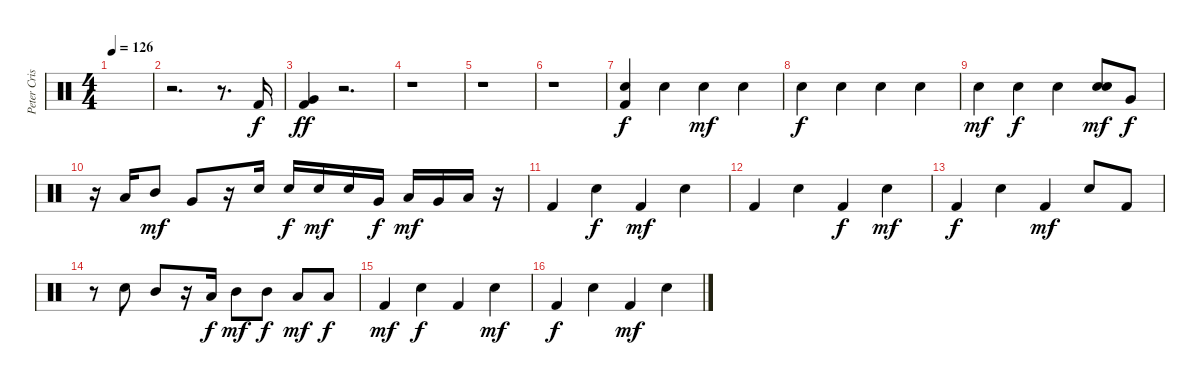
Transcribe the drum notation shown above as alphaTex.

\track ("Peter Criss" "Peter Cris") {instrument percussion}
\staff {score}
\articulation defaults
\ts (4 4)
\tempo 126
\clef neutral
\ks c
|
r.2{d} r.8{d} "Kick (hit) 2".16 |
("Kick (hit) 2" "Very Low Tom (hit)").4{dy ff} r.2{d} |
r.1 |
r.1 |
r.1 |
("Kick (hit) 2" "Electric Snare (hit)").4{dy f} "Electric Snare (hit)".4 "Electric Snare (hit)".4{dy mf} "Electric Snare (hit)".4 |
"Electric Snare (hit)".4{dy f} "Electric Snare (hit)".4 "Electric Snare (hit)".4 "Electric Snare (hit)".4 |
"Electric Snare (hit)".4{dy mf} "Electric Snare (hit)".4{dy f} "Electric Snare (hit)".4 ("Electric Snare (hit)" "Electric Snare (hit)").8{dy mf} "Very Low Tom (hit)".8{dy f} |
r.16 "Low Tom (hit)".16 "Mid Tom (hit)".8{dy mf} "Very Low Tom (hit)".8 r.16 "Electric Snare (hit)".16 "Electric Snare (hit)".16{dy f} "Electric Snare (hit)".16{dy mf} "Electric Snare (hit)".16 "Very Low Tom (hit)".16{dy f} "Low Tom (hit)".16{dy mf} "Very Low Tom (hit)".16 "Low Tom (hit)".16 r.16 |
"Kick (hit) 2".4 "Electric Snare (hit)".4{dy f} "Kick (hit) 2".4{dy mf} "Electric Snare (hit)".4 |
"Kick (hit) 2".4 "Electric Snare (hit)".4 "Kick (hit) 2".4{dy f} "Electric Snare (hit)".4{dy mf} |
"Kick (hit) 2".4{dy f} "Electric Snare (hit)".4 "Kick (hit) 2".4{dy mf} "Electric Snare (hit)".8 "Kick (hit) 2".8 |
r.8 "Electric Snare (hit)".8 "Mid Tom (hit)".8 r.16 "Low Tom (hit)".16{dy f} "Mid Tom (hit)".8{dy mf} "Mid Tom (hit)".8{dy f} "Low Tom (hit)".8{dy mf} "Low Tom (hit)".8{dy f} |
"Kick (hit) 2".4{dy mf} "Electric Snare (hit)".4{dy f} "Kick (hit) 2".4 "Electric Snare (hit)".4{dy mf} |
"Kick (hit) 2".4{dy f} "Electric Snare (hit)".4 "Kick (hit) 2".4{dy mf} "Electric Snare (hit)".4
